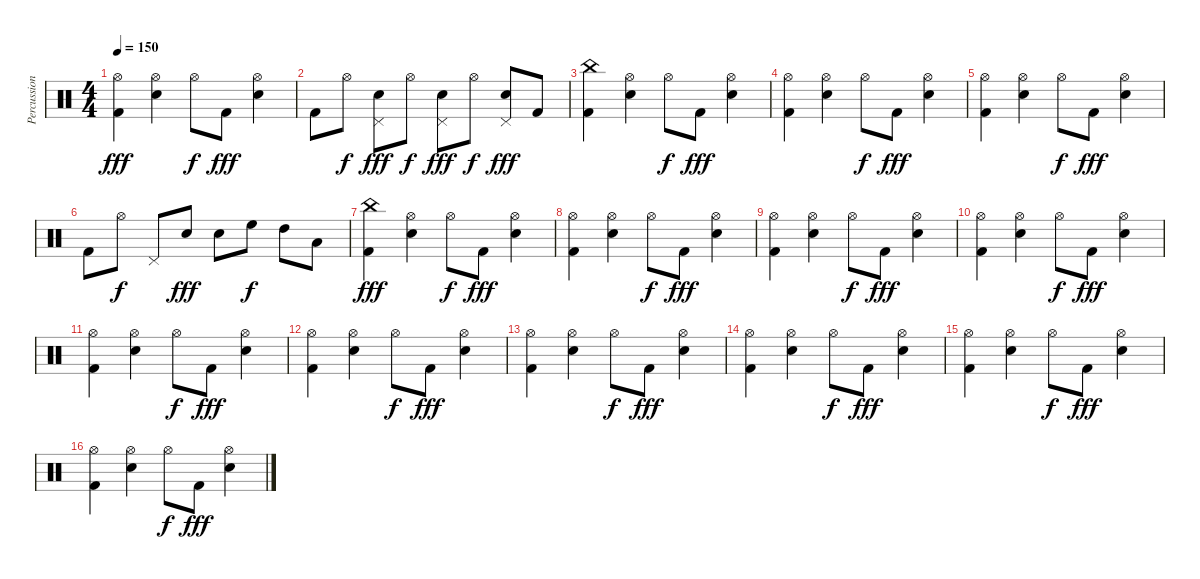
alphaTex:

\track ("Percussions" "Percussion") {instrument percussion}
\staff {score}
\articulation defaults
\ts (4 4)
\tempo 150
\clef neutral
\ks c
("Hi-Hat (open)" "Kick (hit) 2").4{dy fff} ("Hi-Hat (open)" "Electric Snare (hit)").4 "Hi-Hat (open)".8{dy f} "Kick (hit) 2".8{dy fff} ("Hi-Hat (open)" "Electric Snare (hit)").4 |
"Kick (hit) 2".8 "Hi-Hat (open)".8{dy f} ("Pedal Hi-Hat (hit)" "Electric Snare (hit)").8{dy fff} "Hi-Hat (open)".8{dy f} ("Pedal Hi-Hat (hit)" "Electric Snare (hit)").8{dy fff} "Hi-Hat (open)".8{dy f} ("Pedal Hi-Hat (hit)" "Electric Snare (hit)").8{dy fff} "Kick (hit) 2".8 |
("China (hit)" "Kick (hit) 2").4 ("Hi-Hat (open)" "Electric Snare (hit)").4 "Hi-Hat (open)".8{dy f} "Kick (hit) 2".8{dy fff} ("Hi-Hat (open)" "Electric Snare (hit)").4 |
("Hi-Hat (open)" "Kick (hit) 2").4 ("Hi-Hat (open)" "Electric Snare (hit)").4 "Hi-Hat (open)".8{dy f} "Kick (hit) 2".8{dy fff} ("Hi-Hat (open)" "Electric Snare (hit)").4 |
("Hi-Hat (open)" "Kick (hit) 2").4 ("Hi-Hat (open)" "Electric Snare (hit)").4 "Hi-Hat (open)".8{dy f} "Kick (hit) 2".8{dy fff} ("Hi-Hat (open)" "Electric Snare (hit)").4 |
"Kick (hit) 2".8 "Hi-Hat (open)".8{dy f} "Pedal Hi-Hat (hit)".8 "Electric Snare (hit)".8{dy fff} "Electric Snare (hit)".8 "High Floor Tom (hit)".8{dy f} "High Tom (hit)".8 "Low Tom (hit)".8 |
("China (hit)" "Kick (hit) 2").4{dy fff} ("Hi-Hat (open)" "Electric Snare (hit)").4 "Hi-Hat (open)".8{dy f} "Kick (hit) 2".8{dy fff} ("Hi-Hat (open)" "Electric Snare (hit)").4 |
("Hi-Hat (open)" "Kick (hit) 2").4 ("Hi-Hat (open)" "Electric Snare (hit)").4 "Hi-Hat (open)".8{dy f} "Kick (hit) 2".8{dy fff} ("Hi-Hat (open)" "Electric Snare (hit)").4 |
("Hi-Hat (open)" "Kick (hit) 2").4 ("Hi-Hat (open)" "Electric Snare (hit)").4 "Hi-Hat (open)".8{dy f} "Kick (hit) 2".8{dy fff} ("Hi-Hat (open)" "Electric Snare (hit)").4 |
("Hi-Hat (open)" "Kick (hit) 2").4 ("Hi-Hat (open)" "Electric Snare (hit)").4 "Hi-Hat (open)".8{dy f} "Kick (hit) 2".8{dy fff} ("Hi-Hat (open)" "Electric Snare (hit)").4 |
("Hi-Hat (open)" "Kick (hit) 2").4 ("Hi-Hat (open)" "Electric Snare (hit)").4 "Hi-Hat (open)".8{dy f} "Kick (hit) 2".8{dy fff} ("Hi-Hat (open)" "Electric Snare (hit)").4 |
("Hi-Hat (open)" "Kick (hit) 2").4 ("Hi-Hat (open)" "Electric Snare (hit)").4 "Hi-Hat (open)".8{dy f} "Kick (hit) 2".8{dy fff} ("Hi-Hat (open)" "Electric Snare (hit)").4 |
("Hi-Hat (open)" "Kick (hit) 2").4 ("Hi-Hat (open)" "Electric Snare (hit)").4 "Hi-Hat (open)".8{dy f} "Kick (hit) 2".8{dy fff} ("Hi-Hat (open)" "Electric Snare (hit)").4 |
("Hi-Hat (open)" "Kick (hit) 2").4 ("Hi-Hat (open)" "Electric Snare (hit)").4 "Hi-Hat (open)".8{dy f} "Kick (hit) 2".8{dy fff} ("Hi-Hat (open)" "Electric Snare (hit)").4 |
("Hi-Hat (open)" "Kick (hit) 2").4 ("Hi-Hat (open)" "Electric Snare (hit)").4 "Hi-Hat (open)".8{dy f} "Kick (hit) 2".8{dy fff} ("Hi-Hat (open)" "Electric Snare (hit)").4 |
("Hi-Hat (open)" "Kick (hit) 2").4 ("Hi-Hat (open)" "Electric Snare (hit)").4 "Hi-Hat (open)".8{dy f} "Kick (hit) 2".8{dy fff} ("Hi-Hat (open)" "Electric Snare (hit)").4
